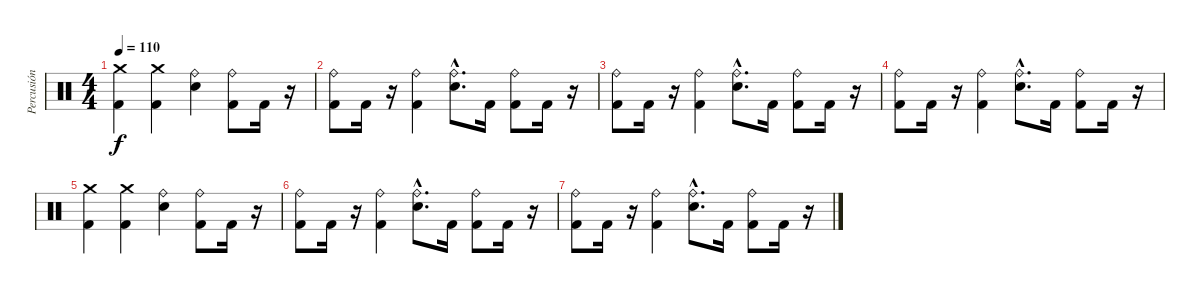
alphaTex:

\track ("Percusión" "Percusión") {instrument percussion}
\staff {score}
\articulation defaults
\ts (4 4)
\tempo 110
\clef neutral
\ks c
("Kick (hit) 2" "Crash medium (hit)").4{dy f} ("Kick (hit) 2" "Crash medium (hit)").4 ("Electric Snare (hit)" "Ride (bell)").4 ("Kick (hit) 2" "Ride (bell)").8 "Kick (hit) 2".16 r.16 |
("Kick (hit) 2" "Ride (bell)").8 "Kick (hit) 2".16 r.16 ("Kick (hit) 2" "Ride (bell)").4 ("Electric Snare (hit)"{hac} "Ride (bell)"{hac}).8{d} "Kick (hit) 2".16 ("Kick (hit) 2" "Ride (bell)").8 "Kick (hit) 2".16 r.16 |
("Kick (hit) 2" "Ride (bell)").8 "Kick (hit) 2".16 r.16 ("Kick (hit) 2" "Ride (bell)").4 ("Electric Snare (hit)"{hac} "Ride (bell)"{hac}).8{d} "Kick (hit) 2".16 ("Kick (hit) 2" "Ride (bell)").8 "Kick (hit) 2".16 r.16 |
("Kick (hit) 2" "Ride (bell)").8 "Kick (hit) 2".16 r.16 ("Kick (hit) 2" "Ride (bell)").4 ("Electric Snare (hit)"{hac} "Ride (bell)"{hac}).8{d} "Kick (hit) 2".16 ("Kick (hit) 2" "Ride (bell)").8 "Kick (hit) 2".16 r.16 |
("Kick (hit) 2" "Crash medium (hit)").4 ("Kick (hit) 2" "Crash medium (hit)").4 ("Electric Snare (hit)" "Ride (bell)").4 ("Kick (hit) 2" "Ride (bell)").8 "Kick (hit) 2".16 r.16 |
("Kick (hit) 2" "Ride (bell)").8 "Kick (hit) 2".16 r.16 ("Kick (hit) 2" "Ride (bell)").4 ("Electric Snare (hit)"{hac} "Ride (bell)"{hac}).8{d} "Kick (hit) 2".16 ("Kick (hit) 2" "Ride (bell)").8 "Kick (hit) 2".16 r.16 |
("Kick (hit) 2" "Ride (bell)").8 "Kick (hit) 2".16 r.16 ("Kick (hit) 2" "Ride (bell)").4 ("Electric Snare (hit)"{hac} "Ride (bell)"{hac}).8{d} "Kick (hit) 2".16 ("Kick (hit) 2" "Ride (bell)").8 "Kick (hit) 2".16 r.16
